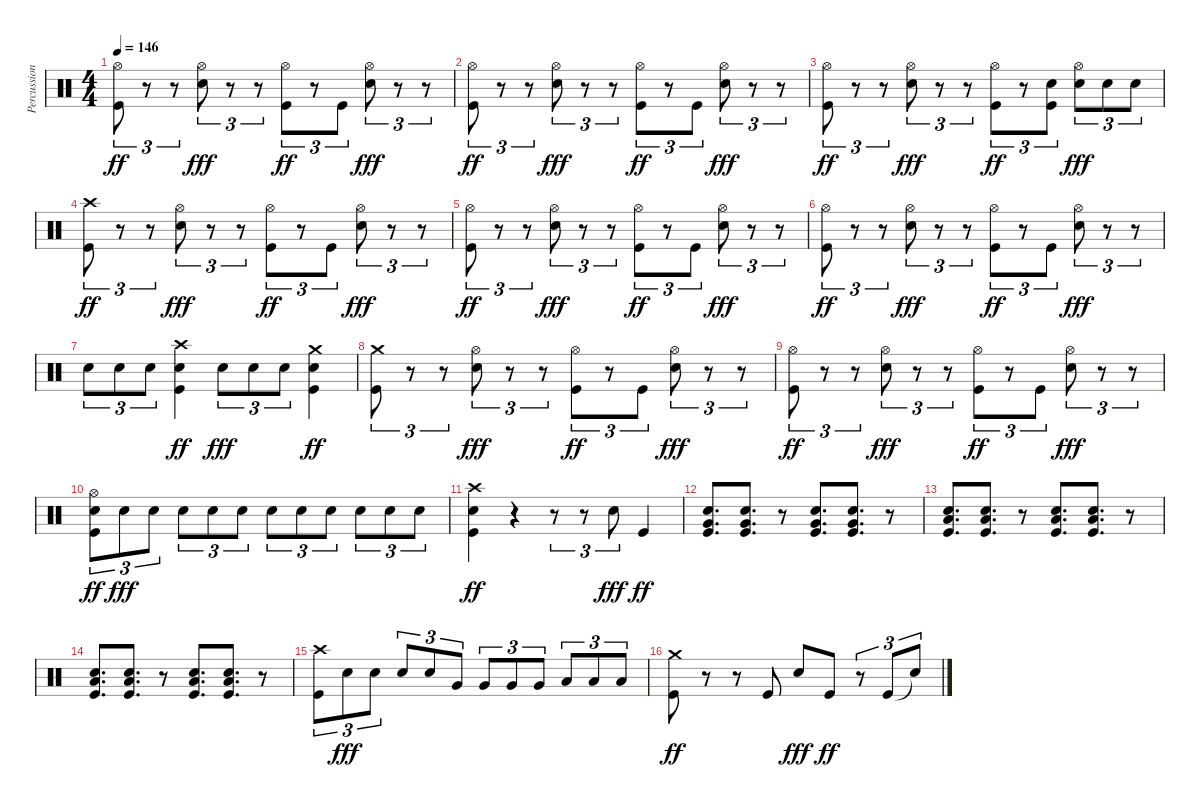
\track ("Percussion" "Percussion") {instrument percussion}
\staff {score}
\articulation defaults
\ts (4 4)
\tempo 146
\clef neutral
\ks c
("Hi-Hat (open)" "Kick (hit)").8{tu (3 2) dy ff} r.8{tu (3 2)} r.8{tu (3 2)} ("Hi-Hat (open)" "Snare (hit) 2").8{tu (3 2) dy fff} r.8{tu (3 2)} r.8{tu (3 2)} ("Hi-Hat (open)" "Kick (hit)").8{tu (3 2) dy ff} r.8{tu (3 2)} "Kick (hit)".8{tu (3 2)} ("Hi-Hat (open)" "Snare (hit) 2").8{tu (3 2) dy fff} r.8{tu (3 2)} r.8{tu (3 2)} |
("Hi-Hat (open)" "Kick (hit)").8{tu (3 2) dy ff} r.8{tu (3 2)} r.8{tu (3 2)} ("Hi-Hat (open)" "Snare (hit) 2").8{tu (3 2) dy fff} r.8{tu (3 2)} r.8{tu (3 2)} ("Hi-Hat (open)" "Kick (hit)").8{tu (3 2) dy ff} r.8{tu (3 2)} "Kick (hit)".8{tu (3 2)} ("Hi-Hat (open)" "Snare (hit) 2").8{tu (3 2) dy fff} r.8{tu (3 2)} r.8{tu (3 2)} |
("Hi-Hat (open)" "Kick (hit)").8{tu (3 2) dy ff} r.8{tu (3 2)} r.8{tu (3 2)} ("Hi-Hat (open)" "Snare (hit) 2").8{tu (3 2) dy fff} r.8{tu (3 2)} r.8{tu (3 2)} ("Hi-Hat (open)" "Kick (hit)").8{tu (3 2) dy ff} r.8{tu (3 2)} ("Snare (hit) 2" "Kick (hit)").8{tu (3 2)} ("Hi-Hat (open)" "Snare (hit) 2").8{tu (3 2) dy fff} "Snare (hit) 2".8{tu (3 2)} "Snare (hit) 2".8{tu (3 2)} |
("Crash high (hit)" "Kick (hit)").8{tu (3 2) dy ff} r.8{tu (3 2)} r.8{tu (3 2)} ("Hi-Hat (open)" "Snare (hit) 2").8{tu (3 2) dy fff} r.8{tu (3 2)} r.8{tu (3 2)} ("Hi-Hat (open)" "Kick (hit)").8{tu (3 2) dy ff} r.8{tu (3 2)} "Kick (hit)".8{tu (3 2)} ("Hi-Hat (open)" "Snare (hit) 2").8{tu (3 2) dy fff} r.8{tu (3 2)} r.8{tu (3 2)} |
("Hi-Hat (open)" "Kick (hit)").8{tu (3 2) dy ff} r.8{tu (3 2)} r.8{tu (3 2)} ("Hi-Hat (open)" "Snare (hit) 2").8{tu (3 2) dy fff} r.8{tu (3 2)} r.8{tu (3 2)} ("Hi-Hat (open)" "Kick (hit)").8{tu (3 2) dy ff} r.8{tu (3 2)} "Kick (hit)".8{tu (3 2)} ("Hi-Hat (open)" "Snare (hit) 2").8{tu (3 2) dy fff} r.8{tu (3 2)} r.8{tu (3 2)} |
("Hi-Hat (open)" "Kick (hit)").8{tu (3 2) dy ff} r.8{tu (3 2)} r.8{tu (3 2)} ("Hi-Hat (open)" "Snare (hit) 2").8{tu (3 2) dy fff} r.8{tu (3 2)} r.8{tu (3 2)} ("Hi-Hat (open)" "Kick (hit)").8{tu (3 2) dy ff} r.8{tu (3 2)} "Kick (hit)".8{tu (3 2)} ("Hi-Hat (open)" "Snare (hit) 2").8{tu (3 2) dy fff} r.8{tu (3 2)} r.8{tu (3 2)} |
"Snare (hit) 2".8{tu (3 2)} "Snare (hit) 2".8{tu (3 2)} "Snare (hit) 2".8{tu (3 2)} ("Crash high (hit)" "Snare (hit) 2" "Kick (hit)").4{dy ff} "Snare (hit) 2".8{tu (3 2) dy fff} "Snare (hit) 2".8{tu (3 2)} "Snare (hit) 2".8{tu (3 2)} ("Crash medium (hit)" "Snare (hit) 2" "Kick (hit)").4{dy ff} |
("Crash medium (hit)" "Kick (hit)").8{tu (3 2)} r.8{tu (3 2)} r.8{tu (3 2)} ("Hi-Hat (open)" "Snare (hit) 2").8{tu (3 2) dy fff} r.8{tu (3 2)} r.8{tu (3 2)} ("Hi-Hat (open)" "Kick (hit)").8{tu (3 2) dy ff} r.8{tu (3 2)} "Kick (hit)".8{tu (3 2)} ("Hi-Hat (open)" "Snare (hit) 2").8{tu (3 2) dy fff} r.8{tu (3 2)} r.8{tu (3 2)} |
("Hi-Hat (open)" "Kick (hit)").8{tu (3 2) dy ff} r.8{tu (3 2)} r.8{tu (3 2)} ("Hi-Hat (open)" "Snare (hit) 2").8{tu (3 2) dy fff} r.8{tu (3 2)} r.8{tu (3 2)} ("Hi-Hat (open)" "Kick (hit)").8{tu (3 2) dy ff} r.8{tu (3 2)} "Kick (hit)".8{tu (3 2)} ("Hi-Hat (open)" "Snare (hit) 2").8{tu (3 2) dy fff} r.8{tu (3 2)} r.8{tu (3 2)} |
("Hi-Hat (open)" "Snare (hit) 2" "Kick (hit)").8{tu (3 2) dy ff} "Snare (hit) 2".8{tu (3 2) dy fff} "Snare (hit) 2".8{tu (3 2)} "Snare (hit) 2".8{tu (3 2)} "Snare (hit) 2".8{tu (3 2)} "Snare (hit) 2".8{tu (3 2)} "Snare (hit) 2".8{tu (3 2)} "Snare (hit) 2".8{tu (3 2)} "Snare (hit) 2".8{tu (3 2)} "Snare (hit) 2".8{tu (3 2)} "Snare (hit) 2".8{tu (3 2)} "Snare (hit) 2".8{tu (3 2)} |
("Crash high (hit)" "Snare (hit) 2" "Kick (hit)").4{dy ff} r.4 r.8{tu (3 2)} r.8{tu (3 2)} "Snare (hit) 2".8{tu (3 2) dy fff} "Kick (hit)".4{dy ff} |
("Very Low Tom (hit)" "Snare (hit) 2" "Kick (hit)").8{d} ("Very Low Tom (hit)" "Snare (hit) 2" "Kick (hit)").8{d} r.8 ("Very Low Tom (hit)" "Snare (hit) 2" "Kick (hit)").8{d} ("Very Low Tom (hit)" "Snare (hit) 2" "Kick (hit)").8{d} r.8 |
("Low Floor Tom (hit)" "Snare (hit) 2" "Kick (hit)").8{d} ("Low Floor Tom (hit)" "Snare (hit) 2" "Kick (hit)").8{d} r.8 ("Low Floor Tom (hit)" "Snare (hit) 2" "Kick (hit)").8{d} ("Low Floor Tom (hit)" "Snare (hit) 2" "Kick (hit)").8{d} r.8 |
("Low Floor Tom (hit)" "Snare (hit) 2" "Kick (hit)").8{d} ("Low Floor Tom (hit)" "Snare (hit) 2" "Kick (hit)").8{d} r.8 ("Low Floor Tom (hit)" "Snare (hit) 2" "Kick (hit)").8{d} ("Low Floor Tom (hit)" "Snare (hit) 2" "Kick (hit)").8{d} r.8 |
("Crash high (hit)" "Kick (hit)").8{tu (3 2)} "Snare (hit) 2".8{tu (3 2) dy fff} "Snare (hit) 2".8{tu (3 2)} "Snare (hit) 2".8{tu (3 2)} "Snare (hit) 2".8{tu (3 2)} "Very Low Tom (hit)".8{tu (3 2)} "Very Low Tom (hit)".8{tu (3 2)} "Very Low Tom (hit)".8{tu (3 2)} "Very Low Tom (hit)".8{tu (3 2)} "Low Floor Tom (hit)".8{tu (3 2)} "Low Floor Tom (hit)".8{tu (3 2)} "Low Floor Tom (hit)".8{tu (3 2)} |
("Crash medium (hit)" "Kick (hit)").8{dy ff} r.8 r.8 "Kick (hit)".8 "Snare (hit) 2".8{dy fff} "Kick (hit)".8{dy ff} r.8{tu (3 2)} "Kick (hit)".8{tu (3 2)} "Snare (hit)"{t}.8{tu (3 2)}
